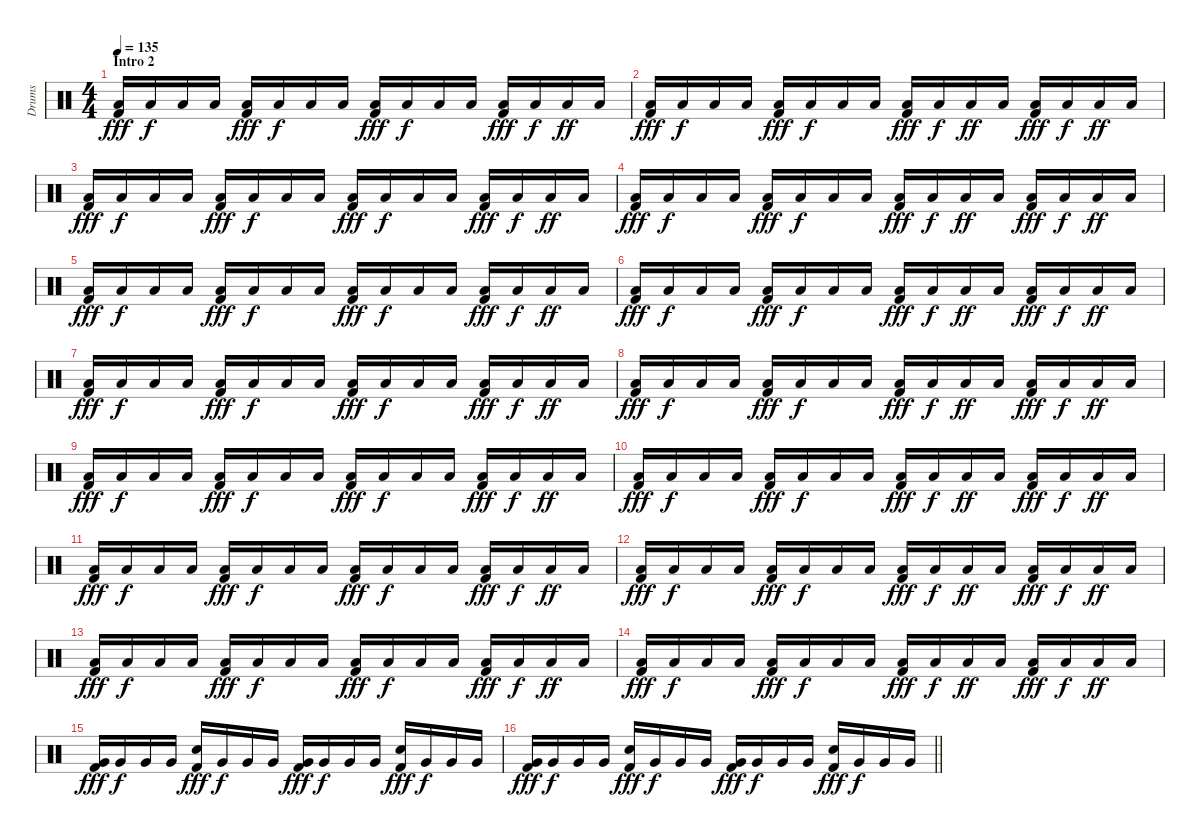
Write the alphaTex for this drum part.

\track ("Drums" "Drums") {instrument percussion}
\staff {score}
\articulation defaults
\ts (4 4)
\section ("" "Intro 2")
\tempo 135
\clef neutral
\ks c
("Low Floor Tom (hit)" "Kick (hit) 2").16{dy fff} "Low Floor Tom (hit)".16{dy f} "Low Floor Tom (hit)".16 "Low Floor Tom (hit)".16 ("Low Floor Tom (hit)" "Kick (hit) 2").16{dy fff} "Low Floor Tom (hit)".16{dy f} "Low Floor Tom (hit)".16 "Low Floor Tom (hit)".16 ("Low Floor Tom (hit)" "Kick (hit) 2").16{dy fff} "Low Floor Tom (hit)".16{dy f} "Low Floor Tom (hit)".16 "Low Floor Tom (hit)".16 ("Low Floor Tom (hit)" "Kick (hit) 2").16{dy fff} "Low Floor Tom (hit)".16{dy f} "Low Tom (hit)".16{dy ff} "Low Tom (hit)".16 |
("Low Tom (hit)" "Kick (hit) 2").16{dy fff} "Low Floor Tom (hit)".16{dy f} "Low Floor Tom (hit)".16 "Low Floor Tom (hit)".16 ("Low Floor Tom (hit)" "Kick (hit) 2").16{dy fff} "Low Floor Tom (hit)".16{dy f} "Low Floor Tom (hit)".16 "Low Floor Tom (hit)".16 ("Low Floor Tom (hit)" "Kick (hit) 2").16{dy fff} "Low Floor Tom (hit)".16{dy f} "Low Tom (hit)".16{dy ff} "Low Tom (hit)".16 ("Low Floor Tom (hit)" "Kick (hit) 2").16{dy fff} "Low Floor Tom (hit)".16{dy f} "Low Tom (hit)".16{dy ff} "Low Tom (hit)".16 |
("Low Floor Tom (hit)" "Kick (hit) 2").16{dy fff} "Low Floor Tom (hit)".16{dy f} "Low Floor Tom (hit)".16 "Low Floor Tom (hit)".16 ("Low Floor Tom (hit)" "Kick (hit) 2").16{dy fff} "Low Floor Tom (hit)".16{dy f} "Low Floor Tom (hit)".16 "Low Floor Tom (hit)".16 ("Low Floor Tom (hit)" "Kick (hit) 2").16{dy fff} "Low Floor Tom (hit)".16{dy f} "Low Floor Tom (hit)".16 "Low Floor Tom (hit)".16 ("Low Floor Tom (hit)" "Kick (hit) 2").16{dy fff} "Low Floor Tom (hit)".16{dy f} "Low Tom (hit)".16{dy ff} "Low Tom (hit)".16 |
("Low Tom (hit)" "Kick (hit) 2").16{dy fff} "Low Floor Tom (hit)".16{dy f} "Low Floor Tom (hit)".16 "Low Floor Tom (hit)".16 ("Low Floor Tom (hit)" "Kick (hit) 2").16{dy fff} "Low Floor Tom (hit)".16{dy f} "Low Floor Tom (hit)".16 "Low Floor Tom (hit)".16 ("Low Floor Tom (hit)" "Kick (hit) 2").16{dy fff} "Low Floor Tom (hit)".16{dy f} "Low Tom (hit)".16{dy ff} "Low Tom (hit)".16 ("Low Floor Tom (hit)" "Kick (hit) 2").16{dy fff} "Low Floor Tom (hit)".16{dy f} "Low Tom (hit)".16{dy ff} "Low Tom (hit)".16 |
("Low Floor Tom (hit)" "Kick (hit) 2").16{dy fff} "Low Floor Tom (hit)".16{dy f} "Low Floor Tom (hit)".16 "Low Floor Tom (hit)".16 ("Low Floor Tom (hit)" "Kick (hit) 2").16{dy fff} "Low Floor Tom (hit)".16{dy f} "Low Floor Tom (hit)".16 "Low Floor Tom (hit)".16 ("Low Floor Tom (hit)" "Kick (hit) 2").16{dy fff} "Low Floor Tom (hit)".16{dy f} "Low Floor Tom (hit)".16 "Low Floor Tom (hit)".16 ("Low Floor Tom (hit)" "Kick (hit) 2").16{dy fff} "Low Floor Tom (hit)".16{dy f} "Low Tom (hit)".16{dy ff} "Low Tom (hit)".16 |
("Low Tom (hit)" "Kick (hit) 2").16{dy fff} "Low Floor Tom (hit)".16{dy f} "Low Floor Tom (hit)".16 "Low Floor Tom (hit)".16 ("Low Floor Tom (hit)" "Kick (hit) 2").16{dy fff} "Low Floor Tom (hit)".16{dy f} "Low Floor Tom (hit)".16 "Low Floor Tom (hit)".16 ("Low Floor Tom (hit)" "Kick (hit) 2").16{dy fff} "Low Floor Tom (hit)".16{dy f} "Low Tom (hit)".16{dy ff} "Low Tom (hit)".16 ("Low Floor Tom (hit)" "Kick (hit) 2").16{dy fff} "Low Floor Tom (hit)".16{dy f} "Low Tom (hit)".16{dy ff} "Low Tom (hit)".16 |
("Low Floor Tom (hit)" "Kick (hit) 2").16{dy fff} "Low Floor Tom (hit)".16{dy f} "Low Floor Tom (hit)".16 "Low Floor Tom (hit)".16 ("Low Floor Tom (hit)" "Kick (hit) 2").16{dy fff} "Low Floor Tom (hit)".16{dy f} "Low Floor Tom (hit)".16 "Low Floor Tom (hit)".16 ("Low Floor Tom (hit)" "Kick (hit) 2").16{dy fff} "Low Floor Tom (hit)".16{dy f} "Low Floor Tom (hit)".16 "Low Floor Tom (hit)".16 ("Low Floor Tom (hit)" "Kick (hit) 2").16{dy fff} "Low Floor Tom (hit)".16{dy f} "Low Tom (hit)".16{dy ff} "Low Tom (hit)".16 |
("Low Tom (hit)" "Kick (hit) 2").16{dy fff} "Low Floor Tom (hit)".16{dy f} "Low Floor Tom (hit)".16 "Low Floor Tom (hit)".16 ("Low Floor Tom (hit)" "Kick (hit) 2").16{dy fff} "Low Floor Tom (hit)".16{dy f} "Low Floor Tom (hit)".16 "Low Floor Tom (hit)".16 ("Low Floor Tom (hit)" "Kick (hit) 2").16{dy fff} "Low Floor Tom (hit)".16{dy f} "Low Tom (hit)".16{dy ff} "Low Tom (hit)".16 ("Low Floor Tom (hit)" "Kick (hit) 2").16{dy fff} "Low Floor Tom (hit)".16{dy f} "Low Tom (hit)".16{dy ff} "Low Tom (hit)".16 |
("Low Floor Tom (hit)" "Kick (hit) 2").16{dy fff} "Low Floor Tom (hit)".16{dy f} "Low Floor Tom (hit)".16 "Low Floor Tom (hit)".16 ("Low Floor Tom (hit)" "Kick (hit) 2").16{dy fff} "Low Floor Tom (hit)".16{dy f} "Low Floor Tom (hit)".16 "Low Floor Tom (hit)".16 ("Low Floor Tom (hit)" "Kick (hit) 2").16{dy fff} "Low Floor Tom (hit)".16{dy f} "Low Floor Tom (hit)".16 "Low Floor Tom (hit)".16 ("Low Floor Tom (hit)" "Kick (hit) 2").16{dy fff} "Low Floor Tom (hit)".16{dy f} "Low Tom (hit)".16{dy ff} "Low Tom (hit)".16 |
("Low Tom (hit)" "Kick (hit) 2").16{dy fff} "Low Floor Tom (hit)".16{dy f} "Low Floor Tom (hit)".16 "Low Floor Tom (hit)".16 ("Low Floor Tom (hit)" "Kick (hit) 2").16{dy fff} "Low Floor Tom (hit)".16{dy f} "Low Floor Tom (hit)".16 "Low Floor Tom (hit)".16 ("Low Floor Tom (hit)" "Kick (hit) 2").16{dy fff} "Low Floor Tom (hit)".16{dy f} "Low Tom (hit)".16{dy ff} "Low Tom (hit)".16 ("Low Floor Tom (hit)" "Kick (hit) 2").16{dy fff} "Low Floor Tom (hit)".16{dy f} "Low Tom (hit)".16{dy ff} "Low Tom (hit)".16 |
("Low Floor Tom (hit)" "Kick (hit) 2").16{dy fff} "Low Floor Tom (hit)".16{dy f} "Low Floor Tom (hit)".16 "Low Floor Tom (hit)".16 ("Low Floor Tom (hit)" "Kick (hit) 2").16{dy fff} "Low Floor Tom (hit)".16{dy f} "Low Floor Tom (hit)".16 "Low Floor Tom (hit)".16 ("Low Floor Tom (hit)" "Kick (hit) 2").16{dy fff} "Low Floor Tom (hit)".16{dy f} "Low Floor Tom (hit)".16 "Low Floor Tom (hit)".16 ("Low Floor Tom (hit)" "Kick (hit) 2").16{dy fff} "Low Floor Tom (hit)".16{dy f} "Low Tom (hit)".16{dy ff} "Low Tom (hit)".16 |
("Low Tom (hit)" "Kick (hit) 2").16{dy fff} "Low Floor Tom (hit)".16{dy f} "Low Floor Tom (hit)".16 "Low Floor Tom (hit)".16 ("Low Floor Tom (hit)" "Kick (hit) 2").16{dy fff} "Low Floor Tom (hit)".16{dy f} "Low Floor Tom (hit)".16 "Low Floor Tom (hit)".16 ("Low Floor Tom (hit)" "Kick (hit) 2").16{dy fff} "Low Floor Tom (hit)".16{dy f} "Low Tom (hit)".16{dy ff} "Low Tom (hit)".16 ("Low Floor Tom (hit)" "Kick (hit) 2").16{dy fff} "Low Floor Tom (hit)".16{dy f} "Low Tom (hit)".16{dy ff} "Low Tom (hit)".16 |
("Low Floor Tom (hit)" "Kick (hit) 2").16{dy fff} "Low Floor Tom (hit)".16{dy f} "Low Floor Tom (hit)".16 "Low Floor Tom (hit)".16 ("Low Floor Tom (hit)" "Kick (hit) 2").16{dy fff} "Low Floor Tom (hit)".16{dy f} "Low Floor Tom (hit)".16 "Low Floor Tom (hit)".16 ("Low Floor Tom (hit)" "Kick (hit) 2").16{dy fff} "Low Floor Tom (hit)".16{dy f} "Low Floor Tom (hit)".16 "Low Floor Tom (hit)".16 ("Low Floor Tom (hit)" "Kick (hit) 2").16{dy fff} "Low Floor Tom (hit)".16{dy f} "Low Tom (hit)".16{dy ff} "Low Tom (hit)".16 |
("Low Tom (hit)" "Kick (hit) 2").16{dy fff} "Low Floor Tom (hit)".16{dy f} "Low Floor Tom (hit)".16 "Low Floor Tom (hit)".16 ("Low Floor Tom (hit)" "Kick (hit) 2").16{dy fff} "Low Floor Tom (hit)".16{dy f} "Low Floor Tom (hit)".16 "Low Floor Tom (hit)".16 ("Low Floor Tom (hit)" "Kick (hit) 2").16{dy fff} "Low Floor Tom (hit)".16{dy f} "Low Tom (hit)".16{dy ff} "Low Tom (hit)".16 ("Low Floor Tom (hit)" "Kick (hit) 2").16{dy fff} "Low Floor Tom (hit)".16{dy f} "Low Tom (hit)".16{dy ff} "Low Tom (hit)".16 |
("Very Low Tom (hit)" "Kick (hit) 2").16{dy fff} "Very Low Tom (hit)".16{dy f} "Very Low Tom (hit)".16 "Very Low Tom (hit)".16 ("Snare (hit) 2" "Kick (hit) 2").16{dy fff} "Very Low Tom (hit)".16{dy f} "Very Low Tom (hit)".16 "Very Low Tom (hit)".16 ("Very Low Tom (hit)" "Kick (hit) 2").16{dy fff} "Very Low Tom (hit)".16{dy f} "Very Low Tom (hit)".16 "Very Low Tom (hit)".16 ("Snare (hit) 2" "Kick (hit) 2").16{dy fff} "Very Low Tom (hit)".16{dy f} "Very Low Tom (hit)".16 "Very Low Tom (hit)".16 |
\barLineRight lightlight
("Very Low Tom (hit)" "Kick (hit) 2").16{dy fff} "Very Low Tom (hit)".16{dy f} "Very Low Tom (hit)".16 "Very Low Tom (hit)".16 ("Snare (hit) 2" "Kick (hit) 2").16{dy fff} "Very Low Tom (hit)".16{dy f} "Very Low Tom (hit)".16 "Very Low Tom (hit)".16 ("Very Low Tom (hit)" "Kick (hit) 2").16{dy fff} "Very Low Tom (hit)".16{dy f} "Very Low Tom (hit)".16 "Very Low Tom (hit)".16 ("Snare (hit) 2" "Kick (hit) 2").16{dy fff} "Very Low Tom (hit)".16{dy f} "Very Low Tom (hit)".16 "Very Low Tom (hit)".16
